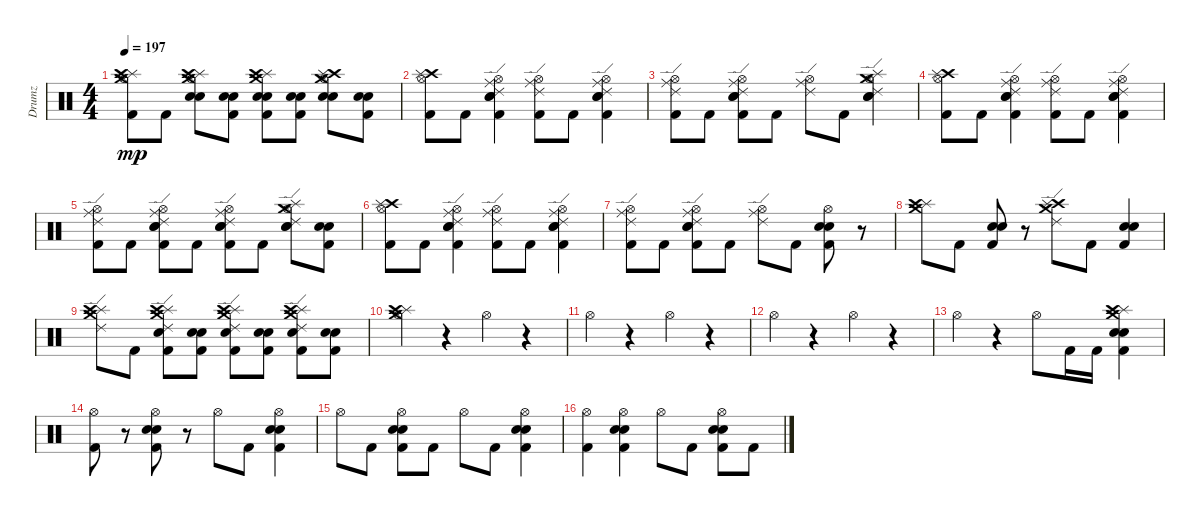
\track ("Drumz" "Drumz") {instrument percussion}
\staff {score}
\articulation defaults
\ts (4 4)
\tempo 197
\clef neutral
\ks c
("Splash (hit)" "Crash medium (hit)" "Crash high (hit)" "Hi-Hat (open)" "Kick (hit) 2").8{dy mp} "Kick (hit) 2".8 ("Crash medium (hit)" "Splash (hit)" "Crash high (hit)" "Hi-Hat (open)" "Snare (hit) 2" "Electric Snare (hit)").8 ("Snare (hit) 2" "Electric Snare (hit)" "Kick (hit) 2").8 ("Splash (hit)" "Crash medium (hit)" "Crash high (hit)" "Kick (hit) 2" "Snare (hit) 2" "Electric Snare (hit)").8 ("Snare (hit) 2" "Electric Snare (hit)" "Kick (hit) 2").8 ("Crash high (hit)" "Crash medium (hit)" "Splash (hit)" "Hi-Hat (open)" "Snare (hit) 2" "Electric Snare (hit)").8 ("Kick (hit) 2" "Snare (hit) 2" "Electric Snare (hit)").8 |
("Kick (hit) 2" "Crash high (hit)" "Splash (hit)" "Hi-Hat (open)").8 "Kick (hit) 2".8 ("Ride (middle)" "Ride (edge) 2" "Kick (hit) 2" "Snare (hit) 2" "Electric Snare (hit)" "Hi-Hat (open)").4 ("Ride (middle)" "Ride (edge) 2" "Kick (hit) 2" "Hi-Hat (open)").8 "Kick (hit) 2".8 ("Ride (middle)" "Ride (edge) 2" "Kick (hit) 2" "Snare (hit) 2" "Electric Snare (hit)" "Hi-Hat (open)").4 |
("Ride (middle)" "Ride (edge) 2" "Hi-Hat (open)" "Kick (hit) 2").8 "Kick (hit) 2".8 ("Ride (middle)" "Ride (edge) 2" "Hi-Hat (open)" "Snare (hit) 2" "Electric Snare (hit)" "Kick (hit) 2").8 "Kick (hit) 2".8 ("Ride (middle)" "Ride (edge) 2" "Hi-Hat (open)").8 "Kick (hit) 2".8 ("Crash medium (hit)" "Splash (hit)" "Ride (edge) 2" "Hi-Hat (open)" "Snare (hit) 2" "Electric Snare (hit)").4 |
("Kick (hit) 2" "Crash high (hit)" "Splash (hit)" "Hi-Hat (open)").8 "Kick (hit) 2".8 ("Ride (middle)" "Ride (edge) 2" "Kick (hit) 2" "Snare (hit) 2" "Electric Snare (hit)" "Hi-Hat (open)").4 ("Ride (middle)" "Ride (edge) 2" "Kick (hit) 2" "Hi-Hat (open)").8 "Kick (hit) 2".8 ("Ride (middle)" "Ride (edge) 2" "Kick (hit) 2" "Snare (hit) 2" "Electric Snare (hit)" "Hi-Hat (open)").4 |
("Ride (middle)" "Ride (edge) 2" "Hi-Hat (open)" "Kick (hit) 2").8 "Kick (hit) 2".8 ("Ride (middle)" "Ride (edge) 2" "Hi-Hat (open)" "Snare (hit) 2" "Electric Snare (hit)" "Kick (hit) 2").8 "Kick (hit) 2".8 ("Ride (middle)" "Ride (edge) 2" "Snare (hit) 2" "Electric Snare (hit)" "Kick (hit) 2" "Hi-Hat (open)").8 "Kick (hit) 2".8 ("Crash medium (hit)" "Splash (hit)" "Ride (edge) 2" "Hi-Hat (open)" "Snare (hit) 2" "Electric Snare (hit)").8 ("Kick (hit) 2" "Snare (hit) 2" "Electric Snare (hit)").8 |
("Kick (hit) 2" "Crash high (hit)" "Splash (hit)" "Hi-Hat (open)").8 "Kick (hit) 2".8 ("Ride (middle)" "Ride (edge) 2" "Kick (hit) 2" "Snare (hit) 2" "Electric Snare (hit)" "Hi-Hat (open)").4 ("Ride (middle)" "Ride (edge) 2" "Kick (hit) 2" "Hi-Hat (open)").8 "Kick (hit) 2".8 ("Ride (middle)" "Ride (edge) 2" "Kick (hit) 2" "Snare (hit) 2" "Electric Snare (hit)" "Hi-Hat (open)").4 |
("Ride (middle)" "Ride (edge) 2" "Hi-Hat (open)" "Kick (hit) 2").8 "Kick (hit) 2".8 ("Ride (middle)" "Ride (edge) 2" "Hi-Hat (open)" "Snare (hit) 2" "Electric Snare (hit)" "Kick (hit) 2").8 "Kick (hit) 2".8 ("Ride (middle)" "Ride (edge) 2" "Hi-Hat (open)").8 "Kick (hit) 2".8 ("Hi-Hat (open)" "Snare (hit) 2" "Electric Snare (hit)" "Kick (hit) 2").8 r.8 |
("Splash (hit)" "Crash medium (hit)" "Crash high (hit)").8 "Kick (hit) 2".8 ("Snare (hit) 2" "Electric Snare (hit)" "Kick (hit) 2").8 r.8 ("Crash medium (hit)" "Ride (edge) 2" "Crash high (hit)" "Splash (hit)").8 "Kick (hit) 2".8 ("Kick (hit) 2" "Snare (hit) 2" "Electric Snare (hit)").4 |
("Splash (hit)" "Crash medium (hit)" "Ride (edge) 2" "Crash high (hit)").8 "Kick (hit) 2".8 ("Ride (edge) 2" "Splash (hit)" "Crash medium (hit)" "Crash high (hit)" "Kick (hit) 2" "Snare (hit) 2").8 ("Snare (hit) 2" "Electric Snare (hit)" "Kick (hit) 2").8 ("Splash (hit)" "Crash medium (hit)" "Ride (edge) 2" "Crash high (hit)" "Kick (hit) 2" "Snare (hit) 2").8 ("Snare (hit) 2" "Electric Snare (hit)" "Kick (hit) 2").8 ("Splash (hit)" "Crash medium (hit)" "Ride (edge) 2" "Crash high (hit)" "Kick (hit) 2" "Snare (hit) 2").8 ("Snare (hit) 2" "Electric Snare (hit)" "Kick (hit) 2").8 |
("Splash (hit)" "Crash medium (hit)" "Crash high (hit)" "Hi-Hat (open)").4 r.4 "Hi-Hat (open)".4 r.4 |
"Hi-Hat (open)".4 r.4 "Hi-Hat (open)".4 r.4 |
"Hi-Hat (open)".4 r.4 "Hi-Hat (open)".4 r.4 |
"Hi-Hat (open)".4 r.4 "Hi-Hat (open)".8 "Kick (hit) 2".16 "Kick (hit) 2".16 ("Splash (hit)" "Crash medium (hit)" "Crash high (hit)" "Snare (hit) 2" "Electric Snare (hit)" "Kick (hit) 2").4 |
("Kick (hit) 2" "Hi-Hat (open)").8 r.8 ("Snare (hit) 2" "Electric Snare (hit)" "Hi-Hat (open)" "Kick (hit) 2").8 r.8 "Hi-Hat (open)".8 "Kick (hit) 2".8 ("Snare (hit) 2" "Electric Snare (hit)" "Kick (hit) 2" "Hi-Hat (open)").4 |
"Hi-Hat (open)".8 "Kick (hit) 2".8 ("Snare (hit) 2" "Electric Snare (hit)" "Kick (hit) 2" "Hi-Hat (open)").8 "Kick (hit) 2".8 "Hi-Hat (open)".8 "Kick (hit) 2".8 ("Snare (hit) 2" "Electric Snare (hit)" "Kick (hit) 2" "Hi-Hat (open)").4 |
("Kick (hit) 2" "Hi-Hat (open)").4 ("Snare (hit) 2" "Electric Snare (hit)" "Kick (hit) 2" "Hi-Hat (open)").4 "Hi-Hat (open)".8 "Kick (hit) 2".8 ("Snare (hit) 2" "Electric Snare (hit)" "Kick (hit) 2" "Hi-Hat (open)").8 "Kick (hit) 2".8
